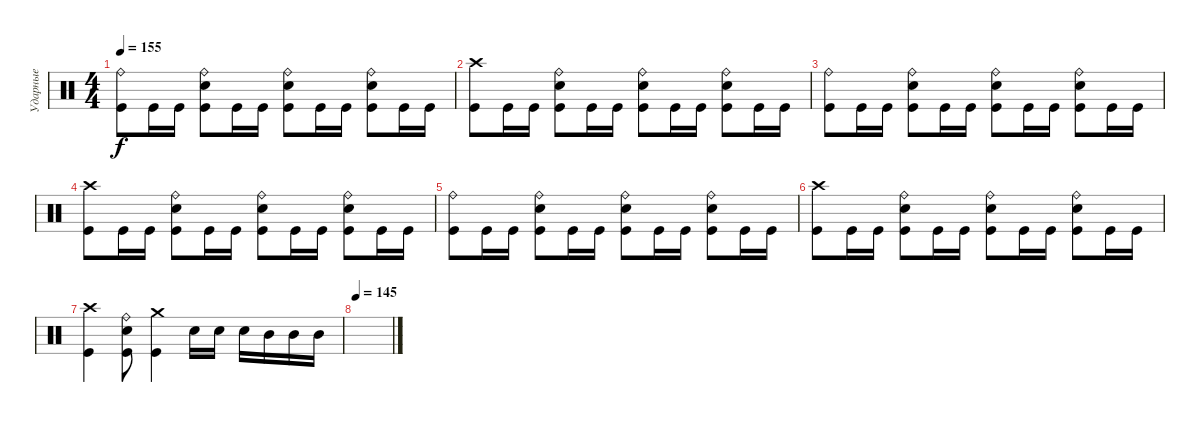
\track ("Ударные" "Ударные") {instrument percussion}
\staff {score}
\articulation defaults
\ts (4 4)
\tempo 155
\clef neutral
\ks c
("Ride (bell)" "Kick (hit)").8{dy f} "Kick (hit)".16 "Kick (hit)".16 ("Ride (bell)" "Electric Snare (hit)" "Kick (hit)").8 "Kick (hit)".16 "Kick (hit)".16 ("Ride (bell)" "Electric Snare (hit)" "Kick (hit)").8 "Kick (hit)".16 "Kick (hit)".16 ("Ride (bell)" "Electric Snare (hit)" "Kick (hit)").8 "Kick (hit)".16 "Kick (hit)".16 |
("Crash high (hit)" "Kick (hit)").8 "Kick (hit)".16 "Kick (hit)".16 ("Ride (bell)" "Electric Snare (hit)" "Kick (hit)").8 "Kick (hit)".16 "Kick (hit)".16 ("Ride (bell)" "Electric Snare (hit)" "Kick (hit)").8 "Kick (hit)".16 "Kick (hit)".16 ("Ride (bell)" "Electric Snare (hit)" "Kick (hit)").8 "Kick (hit)".16 "Kick (hit)".16 |
("Ride (bell)" "Kick (hit)").8 "Kick (hit)".16 "Kick (hit)".16 ("Ride (bell)" "Electric Snare (hit)" "Kick (hit)").8 "Kick (hit)".16 "Kick (hit)".16 ("Ride (bell)" "Electric Snare (hit)" "Kick (hit)").8 "Kick (hit)".16 "Kick (hit)".16 ("Ride (bell)" "Electric Snare (hit)" "Kick (hit)").8 "Kick (hit)".16 "Kick (hit)".16 |
("Crash high (hit)" "Kick (hit)").8 "Kick (hit)".16 "Kick (hit)".16 ("Ride (bell)" "Electric Snare (hit)" "Kick (hit)").8 "Kick (hit)".16 "Kick (hit)".16 ("Ride (bell)" "Electric Snare (hit)" "Kick (hit)").8 "Kick (hit)".16 "Kick (hit)".16 ("Ride (bell)" "Electric Snare (hit)" "Kick (hit)").8 "Kick (hit)".16 "Kick (hit)".16 |
("Ride (bell)" "Kick (hit)").8 "Kick (hit)".16 "Kick (hit)".16 ("Ride (bell)" "Electric Snare (hit)" "Kick (hit)").8 "Kick (hit)".16 "Kick (hit)".16 ("Ride (bell)" "Electric Snare (hit)" "Kick (hit)").8 "Kick (hit)".16 "Kick (hit)".16 ("Ride (bell)" "Electric Snare (hit)" "Kick (hit)").8 "Kick (hit)".16 "Kick (hit)".16 |
("Crash high (hit)" "Kick (hit)").8 "Kick (hit)".16 "Kick (hit)".16 ("Ride (bell)" "Electric Snare (hit)" "Kick (hit)").8 "Kick (hit)".16 "Kick (hit)".16 ("Ride (bell)" "Electric Snare (hit)" "Kick (hit)").8 "Kick (hit)".16 "Kick (hit)".16 ("Ride (bell)" "Electric Snare (hit)" "Kick (hit)").8 "Kick (hit)".16 "Kick (hit)".16 |
("Crash high (hit)" "Kick (hit)").4 ("Ride (bell)" "Electric Snare (hit)" "Kick (hit)").8 ("Crash medium (hit)" "Kick (hit)").4 "Electric Snare (hit)".16 "Electric Snare (hit)".16 "Electric Snare (hit)".16 "Mid Tom (hit)".16 "Mid Tom (hit)".16 "Mid Tom (hit)".16 |
\tempo 145
